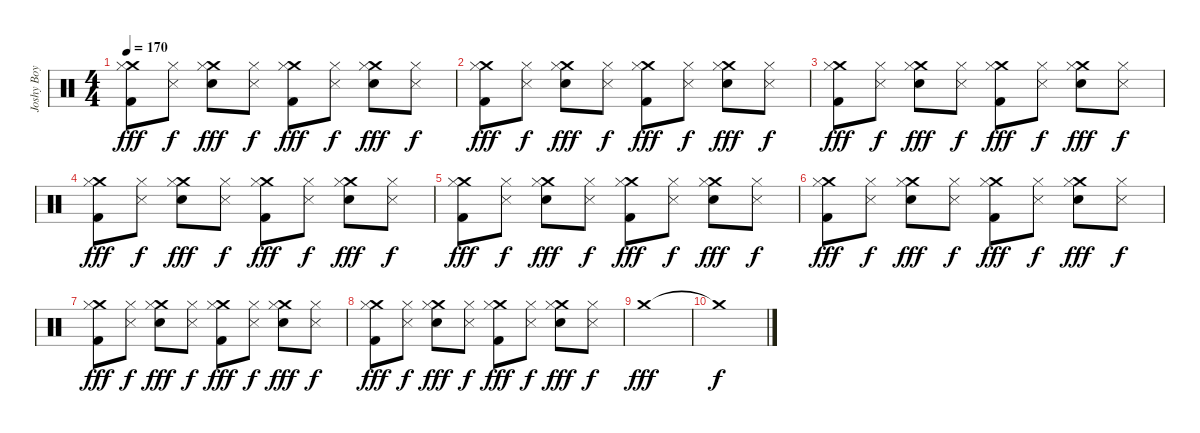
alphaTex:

\track ("Joshy Boy" "Joshy Boy") {instrument percussion}
\staff {score}
\articulation defaults
\ts (4 4)
\tempo 170
\clef neutral
\ks c
("Crash medium (hit)" "Hi-Hat (closed)" "Kick (hit) 2").8{dy fff} ("Hi-Hat (closed)" "Snare (side stick) 3").8{dy f} ("Crash medium (hit)" "Hi-Hat (closed)" "Electric Snare (hit)").8{dy fff} ("Hi-Hat (closed)" "Snare (side stick) 3").8{dy f} ("Crash medium (hit)" "Hi-Hat (closed)" "Kick (hit) 2").8{dy fff} ("Hi-Hat (closed)" "Snare (side stick) 3").8{dy f} ("Crash medium (hit)" "Hi-Hat (closed)" "Electric Snare (hit)").8{dy fff} ("Hi-Hat (closed)" "Snare (side stick) 3").8{dy f} |
("Crash medium (hit)" "Hi-Hat (closed)" "Kick (hit) 2").8{dy fff} ("Hi-Hat (closed)" "Snare (side stick) 3").8{dy f} ("Crash medium (hit)" "Hi-Hat (closed)" "Electric Snare (hit)").8{dy fff} ("Hi-Hat (closed)" "Snare (side stick) 3").8{dy f} ("Crash medium (hit)" "Hi-Hat (closed)" "Kick (hit) 2").8{dy fff} ("Hi-Hat (closed)" "Snare (side stick) 3").8{dy f} ("Crash medium (hit)" "Hi-Hat (closed)" "Electric Snare (hit)").8{dy fff} ("Hi-Hat (closed)" "Snare (side stick) 3").8{dy f} |
("Crash medium (hit)" "Hi-Hat (closed)" "Kick (hit) 2").8{dy fff} ("Hi-Hat (closed)" "Snare (side stick) 3").8{dy f} ("Crash medium (hit)" "Hi-Hat (closed)" "Electric Snare (hit)").8{dy fff} ("Hi-Hat (closed)" "Snare (side stick) 3").8{dy f} ("Crash medium (hit)" "Hi-Hat (closed)" "Kick (hit) 2").8{dy fff} ("Hi-Hat (closed)" "Snare (side stick) 3").8{dy f} ("Crash medium (hit)" "Hi-Hat (closed)" "Electric Snare (hit)").8{dy fff} ("Hi-Hat (closed)" "Snare (side stick) 3").8{dy f} |
("Crash medium (hit)" "Hi-Hat (closed)" "Kick (hit) 2").8{dy fff} ("Hi-Hat (closed)" "Snare (side stick) 3").8{dy f} ("Crash medium (hit)" "Hi-Hat (closed)" "Electric Snare (hit)").8{dy fff} ("Hi-Hat (closed)" "Snare (side stick) 3").8{dy f} ("Crash medium (hit)" "Hi-Hat (closed)" "Kick (hit) 2").8{dy fff} ("Hi-Hat (closed)" "Snare (side stick) 3").8{dy f} ("Crash medium (hit)" "Hi-Hat (closed)" "Electric Snare (hit)").8{dy fff} ("Hi-Hat (closed)" "Snare (side stick) 3").8{dy f} |
("Crash medium (hit)" "Hi-Hat (closed)" "Kick (hit) 2").8{dy fff} ("Hi-Hat (closed)" "Snare (side stick) 3").8{dy f} ("Crash medium (hit)" "Hi-Hat (closed)" "Electric Snare (hit)").8{dy fff} ("Hi-Hat (closed)" "Snare (side stick) 3").8{dy f} ("Crash medium (hit)" "Hi-Hat (closed)" "Kick (hit) 2").8{dy fff} ("Hi-Hat (closed)" "Snare (side stick) 3").8{dy f} ("Crash medium (hit)" "Hi-Hat (closed)" "Electric Snare (hit)").8{dy fff} ("Hi-Hat (closed)" "Snare (side stick) 3").8{dy f} |
("Crash medium (hit)" "Hi-Hat (closed)" "Kick (hit) 2").8{dy fff} ("Hi-Hat (closed)" "Snare (side stick) 3").8{dy f} ("Crash medium (hit)" "Hi-Hat (closed)" "Electric Snare (hit)").8{dy fff} ("Hi-Hat (closed)" "Snare (side stick) 3").8{dy f} ("Crash medium (hit)" "Hi-Hat (closed)" "Kick (hit) 2").8{dy fff} ("Hi-Hat (closed)" "Snare (side stick) 3").8{dy f} ("Crash medium (hit)" "Hi-Hat (closed)" "Electric Snare (hit)").8{dy fff} ("Hi-Hat (closed)" "Snare (side stick) 3").8{dy f} |
("Crash medium (hit)" "Hi-Hat (closed)" "Kick (hit) 2").8{dy fff} ("Hi-Hat (closed)" "Snare (side stick) 3").8{dy f} ("Crash medium (hit)" "Hi-Hat (closed)" "Electric Snare (hit)").8{dy fff} ("Hi-Hat (closed)" "Snare (side stick) 3").8{dy f} ("Crash medium (hit)" "Hi-Hat (closed)" "Kick (hit) 2").8{dy fff} ("Hi-Hat (closed)" "Snare (side stick) 3").8{dy f} ("Crash medium (hit)" "Hi-Hat (closed)" "Electric Snare (hit)").8{dy fff} ("Hi-Hat (closed)" "Snare (side stick) 3").8{dy f} |
("Crash medium (hit)" "Hi-Hat (closed)" "Kick (hit) 2").8{dy fff} ("Hi-Hat (closed)" "Snare (side stick) 3").8{dy f} ("Crash medium (hit)" "Hi-Hat (closed)" "Electric Snare (hit)").8{dy fff} ("Hi-Hat (closed)" "Snare (side stick) 3").8{dy f} ("Crash medium (hit)" "Hi-Hat (closed)" "Kick (hit) 2").8{dy fff} ("Hi-Hat (closed)" "Snare (side stick) 3").8{dy f} ("Crash medium (hit)" "Hi-Hat (closed)" "Electric Snare (hit)").8{dy fff} ("Hi-Hat (closed)" "Snare (side stick) 3").8{dy f} |
"Crash medium (hit)".1{dy fff} |
"Crash medium (hit)"{t}.1{dy f}
